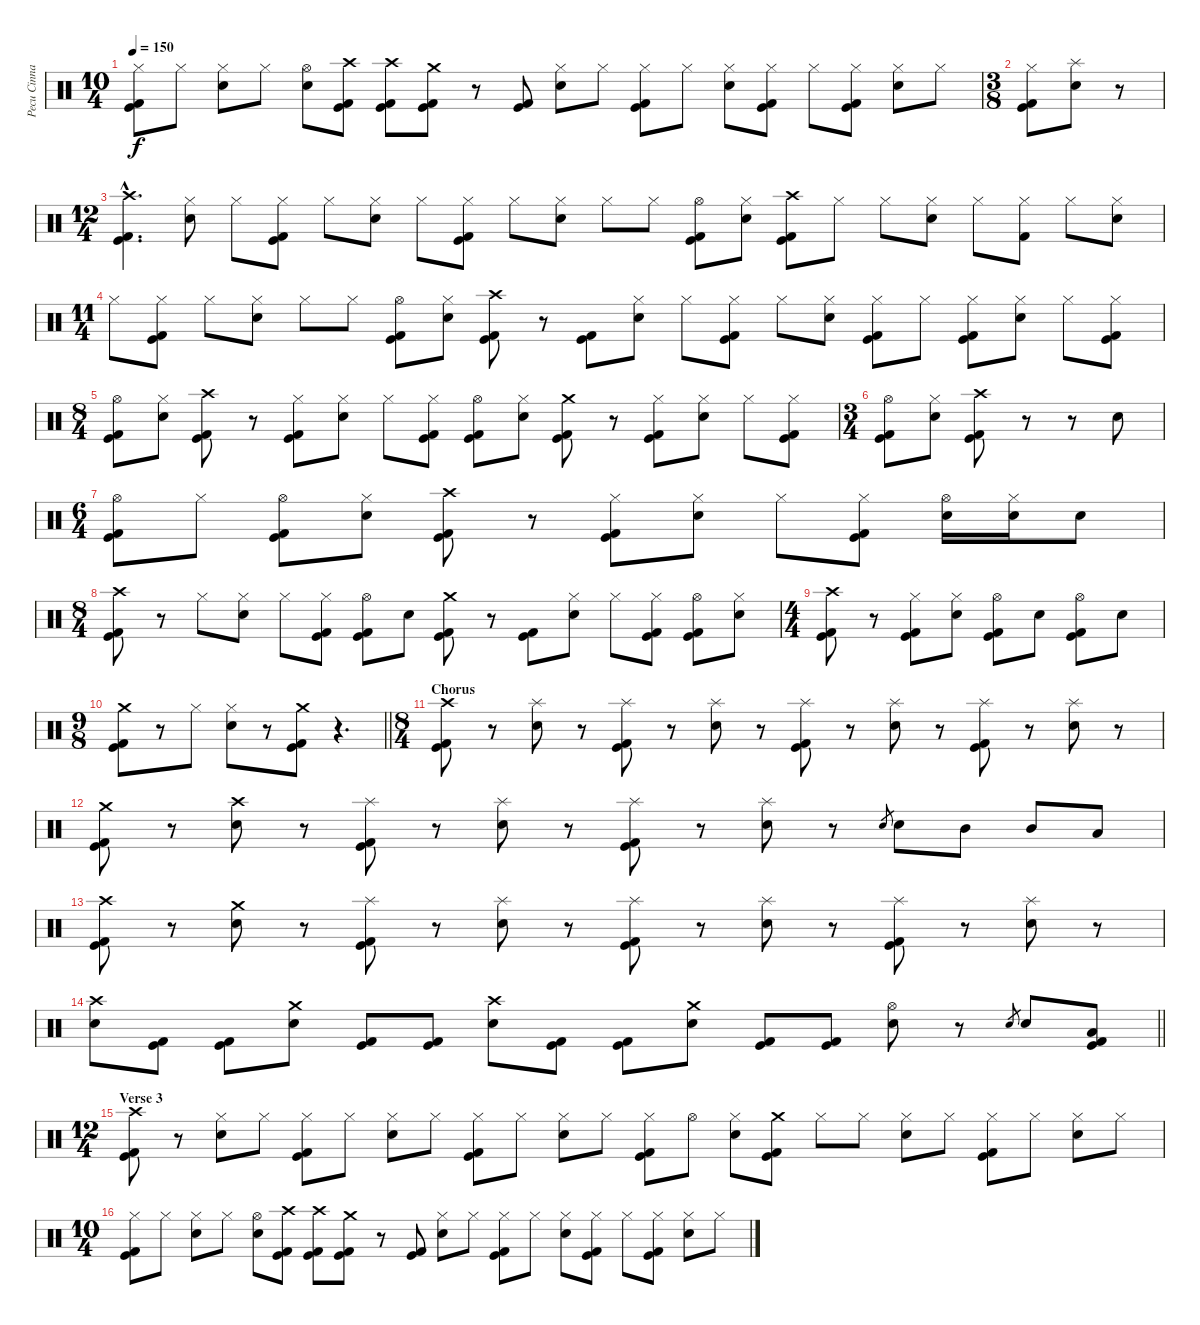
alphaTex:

\track ("Pecu Cinnari" "Pecu Cinna") {instrument percussion}
\staff {score}
\articulation defaults
\ts (10 4)
\tempo 150
\clef neutral
\ks c
("Hi-Hat (closed)" "Kick (hit)" "Kick (hit) 2").8{dy f} "Hi-Hat (closed)".8 ("Hi-Hat (closed)" "Snare (hit) 2").8 "Hi-Hat (closed)".8 ("Hi-Hat (open)" "Snare (hit) 2").8 ("Crash high (hit)" "Kick (hit)" "Kick (hit) 2").8 ("Crash high (hit)" "Kick (hit)" "Kick (hit) 2").8 ("Crash medium (hit)" "Kick (hit)" "Kick (hit) 2").8 r.8 ("Kick (hit)" "Kick (hit) 2").8 ("Hi-Hat (closed)" "Snare (hit) 2").8 "Hi-Hat (closed)".8 ("Hi-Hat (closed)" "Kick (hit)" "Kick (hit) 2").8 "Hi-Hat (closed)".8 ("Hi-Hat (closed)" "Snare (hit) 2").8 ("Hi-Hat (closed)" "Kick (hit)" "Kick (hit) 2").8 "Hi-Hat (closed)".8 ("Hi-Hat (closed)" "Kick (hit)" "Kick (hit) 2").8 ("Hi-Hat (closed)" "Snare (hit) 2").8 "Hi-Hat (closed)".8 |
\ts (3 8)
("Hi-Hat (closed)" "Kick (hit)" "Kick (hit) 2").8 ("Splash (hit)" "Snare (hit) 2").8 r.8 |
\ts (12 4)
("Crash high (hit)"{hac} "Kick (hit)"{hac} "Kick (hit) 2"{hac}).4{d} ("Hi-Hat (closed)" "Snare (hit) 2").8 "Hi-Hat (closed)".8 ("Hi-Hat (closed)" "Kick (hit)" "Kick (hit) 2").8 "Hi-Hat (closed)".8 ("Hi-Hat (closed)" "Snare (hit) 2").8 "Hi-Hat (closed)".8 ("Hi-Hat (closed)" "Kick (hit)" "Kick (hit) 2").8 "Hi-Hat (closed)".8 ("Hi-Hat (closed)" "Snare (hit) 2").8 "Hi-Hat (closed)".8 "Hi-Hat (closed)".8 ("Hi-Hat (open)" "Kick (hit)" "Kick (hit) 2").8 ("Hi-Hat (closed)" "Snare (hit) 2").8 ("Crash high (hit)" "Kick (hit)" "Kick (hit) 2").8 "Hi-Hat (closed)".8 "Hi-Hat (closed)".8 ("Hi-Hat (closed)" "Snare (hit) 2").8 "Hi-Hat (closed)".8 ("Hi-Hat (closed)" "Kick (hit) 2").8 "Hi-Hat (closed)".8 ("Hi-Hat (closed)" "Snare (hit) 2").8 |
\ts (11 4)
"Hi-Hat (closed)".8 ("Hi-Hat (closed)" "Kick (hit)" "Kick (hit) 2").8 "Hi-Hat (closed)".8 ("Hi-Hat (closed)" "Snare (hit) 2").8 "Hi-Hat (closed)".8 "Hi-Hat (closed)".8 ("Hi-Hat (open)" "Kick (hit)" "Kick (hit) 2").8 ("Hi-Hat (closed)" "Snare (hit) 2").8 ("Crash high (hit)" "Kick (hit)" "Kick (hit) 2").8 r.8 ("Kick (hit)" "Kick (hit) 2").8 ("Hi-Hat (closed)" "Snare (hit) 2").8 "Hi-Hat (closed)".8 ("Hi-Hat (closed)" "Kick (hit)" "Kick (hit) 2").8 "Hi-Hat (closed)".8 ("Hi-Hat (closed)" "Snare (hit) 2").8 ("Hi-Hat (closed)" "Kick (hit)" "Kick (hit) 2").8 "Hi-Hat (closed)".8 ("Hi-Hat (closed)" "Kick (hit)" "Kick (hit) 2").8 ("Hi-Hat (closed)" "Snare (hit) 2").8 "Hi-Hat (closed)".8 ("Hi-Hat (closed)" "Kick (hit)" "Kick (hit) 2").8 |
\ts (8 4)
("Hi-Hat (open)" "Kick (hit)" "Kick (hit) 2").8 ("Hi-Hat (closed)" "Snare (hit) 2").8 ("Crash high (hit)" "Kick (hit)" "Kick (hit) 2").8 r.8 ("Hi-Hat (closed)" "Kick (hit)" "Kick (hit) 2").8 ("Hi-Hat (closed)" "Snare (hit) 2").8 "Hi-Hat (closed)".8 ("Hi-Hat (closed)" "Kick (hit)" "Kick (hit) 2").8 ("Hi-Hat (open)" "Kick (hit)" "Kick (hit) 2").8 ("Hi-Hat (closed)" "Snare (hit) 2").8 ("Crash medium (hit)" "Kick (hit)" "Kick (hit) 2").8 r.8 ("Hi-Hat (closed)" "Kick (hit)" "Kick (hit) 2").8 ("Hi-Hat (closed)" "Snare (hit) 2").8 "Hi-Hat (closed)".8 ("Hi-Hat (closed)" "Kick (hit)" "Kick (hit) 2").8 |
\ts (3 4)
("Hi-Hat (open)" "Kick (hit)" "Kick (hit) 2").8 ("Hi-Hat (closed)" "Snare (hit) 2").8 ("Crash high (hit)" "Kick (hit)" "Kick (hit) 2").8 r.8 r.8 "Snare (hit) 2".8 |
\ts (6 4)
("Hi-Hat (open)" "Kick (hit)" "Kick (hit) 2").8 "Hi-Hat (closed)".8 ("Hi-Hat (open)" "Kick (hit)" "Kick (hit) 2").8 ("Hi-Hat (closed)" "Snare (hit) 2").8 ("Crash high (hit)" "Kick (hit)" "Kick (hit) 2").8 r.8 ("Hi-Hat (closed)" "Kick (hit)" "Kick (hit) 2").8 ("Hi-Hat (closed)" "Snare (hit) 2").8 "Hi-Hat (closed)".8 ("Hi-Hat (closed)" "Kick (hit)" "Kick (hit) 2").8 ("Hi-Hat (open)" "Snare (hit) 2").16 ("Hi-Hat (closed)" "Snare (hit) 2").16 "Snare (hit) 2".8 |
\ts (8 4)
("Crash high (hit)" "Kick (hit)" "Kick (hit) 2").8 r.8 "Hi-Hat (closed)".8 ("Hi-Hat (closed)" "Snare (hit) 2").8 "Hi-Hat (closed)".8 ("Hi-Hat (closed)" "Kick (hit)" "Kick (hit) 2").8 ("Hi-Hat (open)" "Kick (hit)" "Kick (hit) 2").8 "Snare (hit) 2".8 ("Crash medium (hit)" "Kick (hit)" "Kick (hit) 2").8 r.8 ("Kick (hit)" "Kick (hit) 2").8 ("Hi-Hat (closed)" "Snare (hit) 2").8 "Hi-Hat (closed)".8 ("Hi-Hat (closed)" "Kick (hit)" "Kick (hit) 2").8 ("Hi-Hat (open)" "Kick (hit)" "Kick (hit) 2").8 ("Hi-Hat (closed)" "Snare (hit) 2").8 |
\ts (4 4)
("Crash high (hit)" "Kick (hit)" "Kick (hit) 2").8 r.8 ("Hi-Hat (closed)" "Kick (hit)" "Kick (hit) 2").8 ("Hi-Hat (closed)" "Snare (hit) 2").8 ("Hi-Hat (open)" "Kick (hit)" "Kick (hit) 2").8 "Snare (hit) 2".8 ("Hi-Hat (open)" "Kick (hit)" "Kick (hit) 2").8 "Snare (hit) 2".8 |
\ts (9 8)
\barLineRight lightlight
("Crash medium (hit)" "Kick (hit)" "Kick (hit) 2").8 r.8 "Hi-Hat (closed)".8 ("Hi-Hat (closed)" "Snare (hit) 2").8 r.8 ("Crash medium (hit)" "Kick (hit)" "Kick (hit) 2").8 r.4{d} |
\ts (8 4)
\section ("" "Chorus")
("Crash high (hit)" "Kick (hit)" "Kick (hit) 2").8 r.8 ("Splash (hit)" "Snare (hit) 2").8 r.8 ("Splash (hit)" "Kick (hit)" "Kick (hit) 2").8 r.8 ("Splash (hit)" "Snare (hit) 2").8 r.8 ("Splash (hit)" "Kick (hit)" "Kick (hit) 2").8 r.8 ("Splash (hit)" "Snare (hit) 2").8 r.8 ("Splash (hit)" "Kick (hit)" "Kick (hit) 2").8 r.8 ("Splash (hit)" "Snare (hit) 2").8 r.8 |
("Crash medium (hit)" "Kick (hit)" "Kick (hit) 2").8 r.8 ("Crash high (hit)" "Snare (hit) 2").8 r.8 ("Splash (hit)" "Kick (hit)" "Kick (hit) 2").8 r.8 ("Splash (hit)" "Snare (hit) 2").8 r.8 ("Splash (hit)" "Kick (hit)" "Kick (hit) 2").8 r.8 ("Splash (hit)" "Snare (hit) 2").8 r.8 "Snare (hit) 2".8{gr} "Snare (hit) 2".8 "Mid Tom (hit)".8 "Mid Tom (hit)".8 "Low Tom (hit)".8 |
("Crash high (hit)" "Kick (hit)" "Kick (hit) 2").8 r.8 ("Crash medium (hit)" "Snare (hit) 2").8 r.8 ("Splash (hit)" "Kick (hit)" "Kick (hit) 2").8 r.8 ("Splash (hit)" "Snare (hit) 2").8 r.8 ("Splash (hit)" "Kick (hit)" "Kick (hit) 2").8 r.8 ("Splash (hit)" "Snare (hit) 2").8 r.8 ("Splash (hit)" "Kick (hit)" "Kick (hit) 2").8 r.8 ("Splash (hit)" "Snare (hit) 2").8 r.8 |
\barLineRight lightlight
("Crash high (hit)" "Snare (hit) 2").8 ("Kick (hit)" "Kick (hit) 2").8 ("Kick (hit)" "Kick (hit) 2").8 ("Crash medium (hit)" "Snare (hit) 2").8 ("Kick (hit)" "Kick (hit) 2").8 ("Kick (hit)" "Kick (hit) 2").8 ("Crash high (hit)" "Snare (hit) 2").8 ("Kick (hit)" "Kick (hit) 2").8 ("Kick (hit)" "Kick (hit) 2").8 ("Crash medium (hit)" "Snare (hit) 2").8 ("Kick (hit)" "Kick (hit) 2").8 ("Kick (hit)" "Kick (hit) 2").8 ("Hi-Hat (open)" "Snare (hit) 2").8 r.8 "Snare (hit) 2".8{gr} "Snare (hit) 2".8 ("Low Tom (hit)" "Kick (hit)" "Kick (hit) 2").8 |
\ts (12 4)
\section ("" "Verse 3")
("Crash high (hit)" "Kick (hit)" "Kick (hit) 2").8 r.8 ("Hi-Hat (closed)" "Snare (hit) 2").8 "Hi-Hat (closed)".8 ("Hi-Hat (closed)" "Kick (hit)" "Kick (hit) 2").8 "Hi-Hat (closed)".8 ("Hi-Hat (closed)" "Snare (hit) 2").8 "Hi-Hat (closed)".8 ("Hi-Hat (closed)" "Kick (hit)" "Kick (hit) 2").8 "Hi-Hat (closed)".8 ("Hi-Hat (closed)" "Snare (hit) 2").8 "Hi-Hat (closed)".8 ("Hi-Hat (closed)" "Kick (hit)" "Kick (hit) 2").8 "Hi-Hat (open)".8 ("Hi-Hat (closed)" "Snare (hit) 2").8 ("Crash medium (hit)" "Kick (hit)" "Kick (hit) 2").8 "Hi-Hat (closed)".8 "Hi-Hat (closed)".8 ("Hi-Hat (closed)" "Snare (hit) 2").8 "Hi-Hat (closed)".8 ("Hi-Hat (closed)" "Kick (hit)" "Kick (hit) 2").8 "Hi-Hat (closed)".8 ("Hi-Hat (closed)" "Snare (hit) 2").8 "Hi-Hat (closed)".8 |
\ts (10 4)
("Hi-Hat (closed)" "Kick (hit)" "Kick (hit) 2").8 "Hi-Hat (closed)".8 ("Hi-Hat (closed)" "Snare (hit) 2").8 "Hi-Hat (closed)".8 ("Hi-Hat (open)" "Snare (hit) 2").8 ("Crash high (hit)" "Kick (hit)" "Kick (hit) 2").8 ("Crash high (hit)" "Kick (hit)" "Kick (hit) 2").8 ("Crash medium (hit)" "Kick (hit)" "Kick (hit) 2").8 r.8 ("Kick (hit)" "Kick (hit) 2").8 ("Hi-Hat (closed)" "Snare (hit) 2").8 "Hi-Hat (closed)".8 ("Hi-Hat (closed)" "Kick (hit)" "Kick (hit) 2").8 "Hi-Hat (closed)".8 ("Hi-Hat (closed)" "Snare (hit) 2").8 ("Hi-Hat (closed)" "Kick (hit)" "Kick (hit) 2").8 "Hi-Hat (closed)".8 ("Hi-Hat (closed)" "Kick (hit)" "Kick (hit) 2").8 ("Hi-Hat (closed)" "Snare (hit) 2").8 "Hi-Hat (closed)".8
